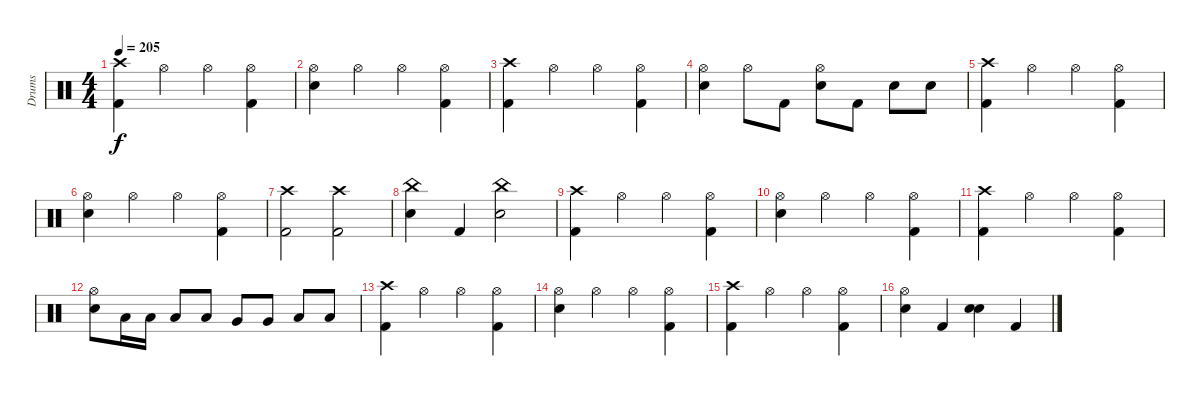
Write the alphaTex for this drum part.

\track ("Drums" "Drums") {instrument percussion bank 169}
\staff {score}
\articulation defaults
\ts (4 4)
\tempo 205
\clef neutral
\ks c
("Crash high (hit)" "Kick (hit) 2").4{dy f} "Hi-Hat (open)".4 "Hi-Hat (open)".4 ("Hi-Hat (open)" "Kick (hit) 2").4 |
("Hi-Hat (open)" "Snare (hit) 2").4 "Hi-Hat (open)".4 "Hi-Hat (open)".4 ("Hi-Hat (open)" "Kick (hit) 2").4 |
("Crash high (hit)" "Kick (hit) 2").4 "Hi-Hat (open)".4 "Hi-Hat (open)".4 ("Hi-Hat (open)" "Kick (hit) 2").4 |
("Hi-Hat (open)" "Snare (hit) 2").4 "Hi-Hat (open)".8 "Kick (hit) 2".8 ("Hi-Hat (open)" "Snare (hit) 2").8 "Kick (hit) 2".8 "Snare (hit) 2".8 "Snare (hit) 2".8 |
("Crash high (hit)" "Kick (hit) 2").4 "Hi-Hat (open)".4 "Hi-Hat (open)".4 ("Hi-Hat (open)" "Kick (hit) 2").4 |
("Hi-Hat (open)" "Snare (hit) 2").4 "Hi-Hat (open)".4 "Hi-Hat (open)".4 ("Hi-Hat (open)" "Kick (hit) 2").4 |
("Crash high (hit)" "Kick (hit) 2").2 ("Crash high (hit)" "Kick (hit) 2").2 |
("China (hit)" "Snare (hit) 2").4 "Kick (hit) 2".4 ("China (hit)" "Snare (hit) 2").2 |
("Crash high (hit)" "Kick (hit) 2").4 "Hi-Hat (open)".4 "Hi-Hat (open)".4 ("Hi-Hat (open)" "Kick (hit) 2").4 |
("Hi-Hat (open)" "Snare (hit) 2").4 "Hi-Hat (open)".4 "Hi-Hat (open)".4 ("Hi-Hat (open)" "Kick (hit) 2").4 |
("Crash high (hit)" "Kick (hit) 2").4 "Hi-Hat (open)".4 "Hi-Hat (open)".4 ("Hi-Hat (open)" "Kick (hit) 2").4 |
("Hi-Hat (open)" "Snare (hit) 2").8 "Low Tom (hit)".16 "Low Tom (hit)".16 "Low Tom (hit)".8 "Low Tom (hit)".8 "Very Low Tom (hit)".8 "Very Low Tom (hit)".8 "Low Floor Tom (hit)".8 "Low Floor Tom (hit)".8 |
("Crash high (hit)" "Kick (hit) 2").4 "Hi-Hat (open)".4 "Hi-Hat (open)".4 ("Hi-Hat (open)" "Kick (hit) 2").4 |
("Hi-Hat (open)" "Snare (hit) 2").4 "Hi-Hat (open)".4 "Hi-Hat (open)".4 ("Hi-Hat (open)" "Kick (hit) 2").4 |
("Crash high (hit)" "Kick (hit) 2").4 "Hi-Hat (open)".4 "Hi-Hat (open)".4 ("Hi-Hat (open)" "Kick (hit) 2").4 |
("Hi-Hat (open)" "Snare (hit) 2").4 "Kick (hit) 2".4 ("Snare (hit) 2" "Snare (hit) 2").4 "Kick (hit) 2".4
